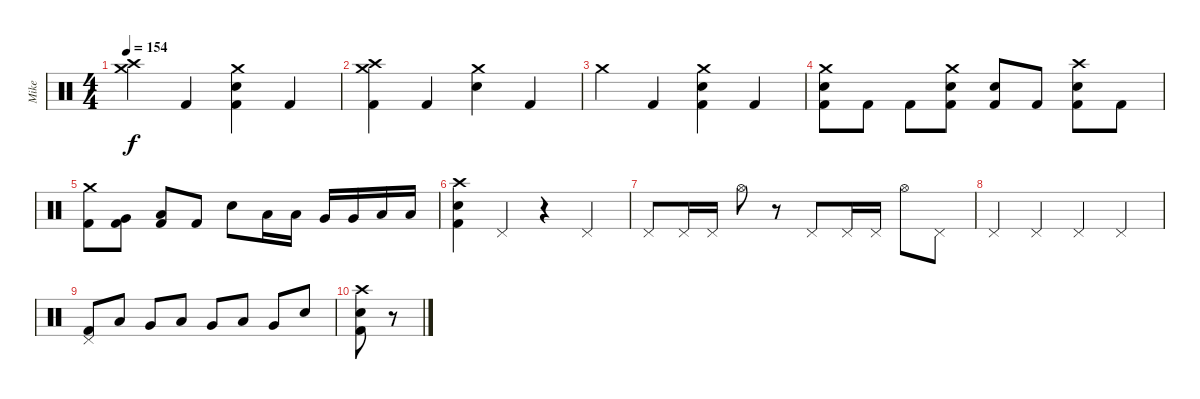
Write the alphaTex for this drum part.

\track ("Mike " "Mike ") {instrument percussion}
\staff {score}
\articulation defaults
\ts (4 4)
\tempo 154
\clef neutral
\ks c
("Crash medium (hit)" "Crash high (hit)").4{dy f} "Kick (hit) 2".4 ("Crash medium (hit)" "Electric Snare (hit)" "Kick (hit) 2").4 "Kick (hit) 2".4 |
("Crash high (hit)" "Crash medium (hit)" "Kick (hit) 2").4 "Kick (hit) 2".4 ("Crash medium (hit)" "Electric Snare (hit)").4 "Kick (hit) 2".4 |
"Crash medium (hit)".4 "Kick (hit) 2".4 ("Crash medium (hit)" "Electric Snare (hit)" "Kick (hit) 2").4 "Kick (hit) 2".4 |
("Crash medium (hit)" "Electric Snare (hit)" "Kick (hit) 2").8 "Kick (hit) 2".8 "Kick (hit) 2".8 ("Crash medium (hit)" "Electric Snare (hit)" "Kick (hit) 2").8 ("Electric Snare (hit)" "Kick (hit) 2").8 "Kick (hit) 2".8 ("Crash high (hit)" "Electric Snare (hit)" "Kick (hit) 2").8 "Kick (hit) 2".8 |
("Crash medium (hit)" "Kick (hit) 2").8 ("Very Low Tom (hit)" "Kick (hit) 2").8 ("Low Floor Tom (hit)" "Kick (hit) 2").8 "Kick (hit) 2".8 "Electric Snare (hit)".8 "Low Tom (hit)".16 "Low Tom (hit)".16 "Very Low Tom (hit)".16 "Very Low Tom (hit)".16 "Low Floor Tom (hit)".16 "Low Floor Tom (hit)".16 |
("Crash high (hit)" "Electric Snare (hit)" "Kick (hit) 2").4 "Pedal Hi-Hat (hit)".4 r.4 "Pedal Hi-Hat (hit)".4 |
"Pedal Hi-Hat (hit)".8 "Pedal Hi-Hat (hit)".16 "Pedal Hi-Hat (hit)".16 "Hi-Hat (open)".8 r.8 "Pedal Hi-Hat (hit)".8 "Pedal Hi-Hat (hit)".16 "Pedal Hi-Hat (hit)".16 "Hi-Hat (open)".8 "Pedal Hi-Hat (hit)".8 |
"Pedal Hi-Hat (hit)".4 "Pedal Hi-Hat (hit)".4 "Pedal Hi-Hat (hit)".4 "Pedal Hi-Hat (hit)".4 |
("Pedal Hi-Hat (hit)" "Kick (hit) 2").8 "Low Tom (hit)".8 "Very Low Tom (hit)".8 "Low Floor Tom (hit)".8 "Very Low Tom (hit)".8 "Low Tom (hit)".8 "Very Low Tom (hit)".8 "Electric Snare (hit)".8 |
("Crash high (hit)" "Electric Snare (hit)" "Kick (hit) 2").8 r.8
